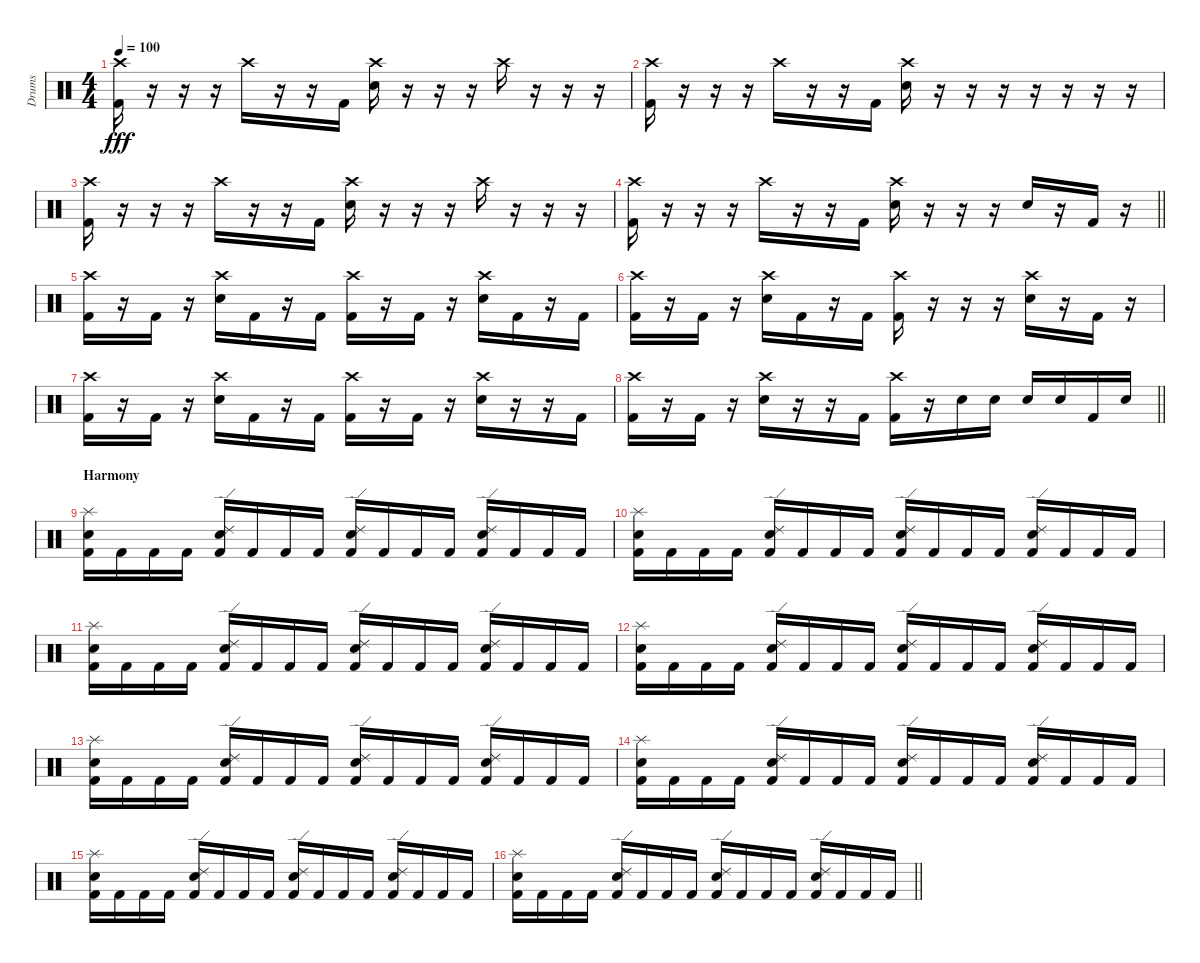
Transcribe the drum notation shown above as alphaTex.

\track ("Drums" "Drums") {instrument percussion}
\staff {score}
\articulation defaults
\ts (4 4)
\tempo 100
\clef neutral
\ks c
("Crash high (hit)" "Kick (hit) 2").16{dy fff} r.16 r.16 r.16 "Crash high (hit)".16 r.16 r.16 "Kick (hit) 2".16 ("Crash high (hit)" "Electric Snare (hit)").16 r.16 r.16 r.16 "Crash high (hit)".16 r.16 r.16 r.16 |
("Crash high (hit)" "Kick (hit) 2").16 r.16 r.16 r.16 "Crash high (hit)".16 r.16 r.16 "Kick (hit) 2".16 ("Crash high (hit)" "Electric Snare (hit)").16 r.16 r.16 r.16 r.16 r.16 r.16 r.16 |
("Crash high (hit)" "Kick (hit) 2").16 r.16 r.16 r.16 "Crash high (hit)".16 r.16 r.16 "Kick (hit) 2".16 ("Crash high (hit)" "Electric Snare (hit)").16 r.16 r.16 r.16 "Crash high (hit)".16 r.16 r.16 r.16 |
\barLineRight lightlight
("Crash high (hit)" "Kick (hit) 2").16 r.16 r.16 r.16 "Crash high (hit)".16 r.16 r.16 "Kick (hit) 2".16 ("Crash high (hit)" "Electric Snare (hit)").16 r.16 r.16 r.16 "Electric Snare (hit)".16 r.16 "Kick (hit) 2".16 r.16 |
("Crash high (hit)" "Kick (hit) 2").16 r.16 "Kick (hit) 2".16 r.16 ("Crash high (hit)" "Electric Snare (hit)").16 "Kick (hit) 2".16 r.16 "Kick (hit) 2".16 ("Crash high (hit)" "Kick (hit) 2").16 r.16 "Kick (hit) 2".16 r.16 ("Crash high (hit)" "Electric Snare (hit)").16 "Kick (hit) 2".16 r.16 "Kick (hit) 2".16 |
("Crash high (hit)" "Kick (hit) 2").16 r.16 "Kick (hit) 2".16 r.16 ("Crash high (hit)" "Electric Snare (hit)").16 "Kick (hit) 2".16 r.16 "Kick (hit) 2".16 ("Crash high (hit)" "Kick (hit) 2").16 r.16 r.16 r.16 ("Crash high (hit)" "Electric Snare (hit)").16 r.16 "Kick (hit) 2".16 r.16 |
("Crash high (hit)" "Kick (hit) 2").16 r.16 "Kick (hit) 2".16 r.16 ("Crash high (hit)" "Electric Snare (hit)").16 "Kick (hit) 2".16 r.16 "Kick (hit) 2".16 ("Crash high (hit)" "Kick (hit) 2").16 r.16 "Kick (hit) 2".16 r.16 ("Crash high (hit)" "Electric Snare (hit)").16 r.16 r.16 "Kick (hit) 2".16 |
\barLineRight lightlight
("Crash high (hit)" "Kick (hit) 2").16 r.16 "Kick (hit) 2".16 r.16 ("Crash high (hit)" "Electric Snare (hit)").16 r.16 r.16 "Kick (hit) 2".16 ("Crash high (hit)" "Kick (hit) 2").16 r.16 "Electric Snare (hit)".16 "Electric Snare (hit)".16 "Electric Snare (hit)".16 "Electric Snare (hit)".16 "Kick (hit) 2".16 "Electric Snare (hit)".16 |
\section ("" "Harmony")
("Splash (hit)" "Electric Snare (hit)" "Kick (hit) 2").16 "Kick (hit) 2".16 "Kick (hit) 2".16 "Kick (hit) 2".16 ("Ride (edge) 2" "Electric Snare (hit)" "Kick (hit) 2").16 "Kick (hit) 2".16 "Kick (hit) 2".16 "Kick (hit) 2".16 ("Ride (edge) 2" "Electric Snare (hit)" "Kick (hit) 2").16 "Kick (hit) 2".16 "Kick (hit) 2".16 "Kick (hit) 2".16 ("Ride (edge) 2" "Electric Snare (hit)" "Kick (hit) 2").16 "Kick (hit) 2".16 "Kick (hit) 2".16 "Kick (hit) 2".16 |
("Splash (hit)" "Electric Snare (hit)" "Kick (hit) 2").16 "Kick (hit) 2".16 "Kick (hit) 2".16 "Kick (hit) 2".16 ("Ride (edge) 2" "Electric Snare (hit)" "Kick (hit) 2").16 "Kick (hit) 2".16 "Kick (hit) 2".16 "Kick (hit) 2".16 ("Ride (edge) 2" "Electric Snare (hit)" "Kick (hit) 2").16 "Kick (hit) 2".16 "Kick (hit) 2".16 "Kick (hit) 2".16 ("Ride (edge) 2" "Electric Snare (hit)" "Kick (hit) 2").16 "Kick (hit) 2".16 "Kick (hit) 2".16 "Kick (hit) 2".16 |
("Splash (hit)" "Electric Snare (hit)" "Kick (hit) 2").16 "Kick (hit) 2".16 "Kick (hit) 2".16 "Kick (hit) 2".16 ("Ride (edge) 2" "Electric Snare (hit)" "Kick (hit) 2").16 "Kick (hit) 2".16 "Kick (hit) 2".16 "Kick (hit) 2".16 ("Ride (edge) 2" "Electric Snare (hit)" "Kick (hit) 2").16 "Kick (hit) 2".16 "Kick (hit) 2".16 "Kick (hit) 2".16 ("Ride (edge) 2" "Electric Snare (hit)" "Kick (hit) 2").16 "Kick (hit) 2".16 "Kick (hit) 2".16 "Kick (hit) 2".16 |
("Splash (hit)" "Electric Snare (hit)" "Kick (hit) 2").16 "Kick (hit) 2".16 "Kick (hit) 2".16 "Kick (hit) 2".16 ("Ride (edge) 2" "Electric Snare (hit)" "Kick (hit) 2").16 "Kick (hit) 2".16 "Kick (hit) 2".16 "Kick (hit) 2".16 ("Ride (edge) 2" "Electric Snare (hit)" "Kick (hit) 2").16 "Kick (hit) 2".16 "Kick (hit) 2".16 "Kick (hit) 2".16 ("Ride (edge) 2" "Electric Snare (hit)" "Kick (hit) 2").16 "Kick (hit) 2".16 "Kick (hit) 2".16 "Kick (hit) 2".16 |
("Splash (hit)" "Electric Snare (hit)" "Kick (hit) 2").16 "Kick (hit) 2".16 "Kick (hit) 2".16 "Kick (hit) 2".16 ("Ride (edge) 2" "Electric Snare (hit)" "Kick (hit) 2").16 "Kick (hit) 2".16 "Kick (hit) 2".16 "Kick (hit) 2".16 ("Ride (edge) 2" "Electric Snare (hit)" "Kick (hit) 2").16 "Kick (hit) 2".16 "Kick (hit) 2".16 "Kick (hit) 2".16 ("Ride (edge) 2" "Electric Snare (hit)" "Kick (hit) 2").16 "Kick (hit) 2".16 "Kick (hit) 2".16 "Kick (hit) 2".16 |
("Splash (hit)" "Electric Snare (hit)" "Kick (hit) 2").16 "Kick (hit) 2".16 "Kick (hit) 2".16 "Kick (hit) 2".16 ("Ride (edge) 2" "Electric Snare (hit)" "Kick (hit) 2").16 "Kick (hit) 2".16 "Kick (hit) 2".16 "Kick (hit) 2".16 ("Ride (edge) 2" "Electric Snare (hit)" "Kick (hit) 2").16 "Kick (hit) 2".16 "Kick (hit) 2".16 "Kick (hit) 2".16 ("Ride (edge) 2" "Electric Snare (hit)" "Kick (hit) 2").16 "Kick (hit) 2".16 "Kick (hit) 2".16 "Kick (hit) 2".16 |
("Splash (hit)" "Electric Snare (hit)" "Kick (hit) 2").16 "Kick (hit) 2".16 "Kick (hit) 2".16 "Kick (hit) 2".16 ("Ride (edge) 2" "Electric Snare (hit)" "Kick (hit) 2").16 "Kick (hit) 2".16 "Kick (hit) 2".16 "Kick (hit) 2".16 ("Ride (edge) 2" "Electric Snare (hit)" "Kick (hit) 2").16 "Kick (hit) 2".16 "Kick (hit) 2".16 "Kick (hit) 2".16 ("Ride (edge) 2" "Electric Snare (hit)" "Kick (hit) 2").16 "Kick (hit) 2".16 "Kick (hit) 2".16 "Kick (hit) 2".16 |
\barLineRight lightlight
("Splash (hit)" "Electric Snare (hit)" "Kick (hit) 2").16 "Kick (hit) 2".16 "Kick (hit) 2".16 "Kick (hit) 2".16 ("Ride (edge) 2" "Electric Snare (hit)" "Kick (hit) 2").16 "Kick (hit) 2".16 "Kick (hit) 2".16 "Kick (hit) 2".16 ("Ride (edge) 2" "Electric Snare (hit)" "Kick (hit) 2").16 "Kick (hit) 2".16 "Kick (hit) 2".16 "Kick (hit) 2".16 ("Ride (edge) 2" "Electric Snare (hit)" "Kick (hit) 2").16 "Kick (hit) 2".16 "Kick (hit) 2".16 "Kick (hit) 2".16
